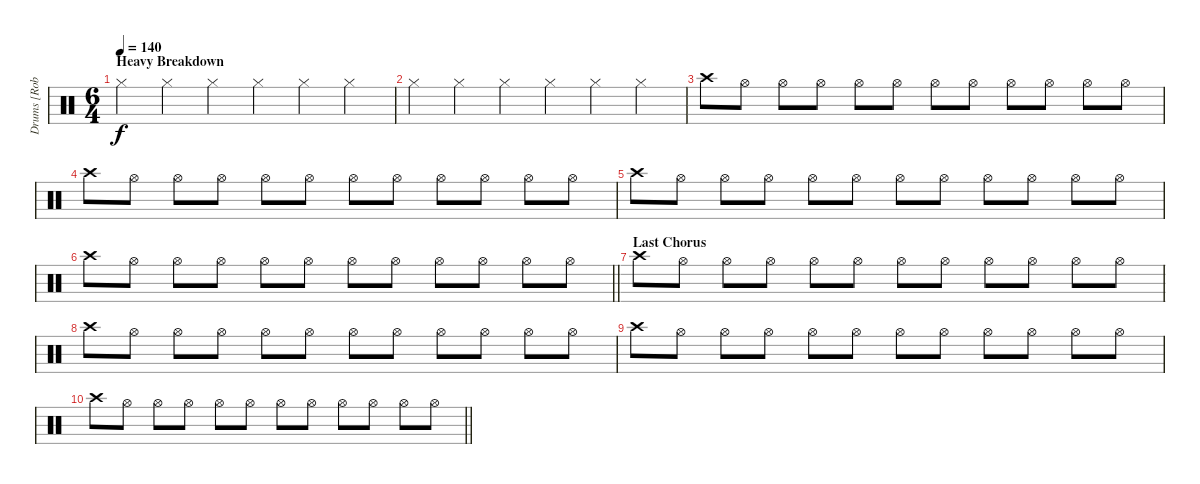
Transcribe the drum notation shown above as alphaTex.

\track ("Drums [Rob Bourdon]" "Drums [Rob") {instrument percussion}
\staff {score}
\articulation defaults
\ts (6 4)
\section ("" "Heavy Breakdown")
\tempo 140
\clef neutral
\ks c "Hi-Hat (closed)".4{dy f} "Hi-Hat (closed)".4 "Hi-Hat (closed)".4 "Hi-Hat (closed)".4 "Hi-Hat (closed)".4 "Hi-Hat (closed)".4
|
"Hi-Hat (closed)".4 "Hi-Hat (closed)".4 "Hi-Hat (closed)".4 "Hi-Hat (closed)".4 "Hi-Hat (closed)".4 "Hi-Hat (closed)".4 |
"Crash high (hit)".8 "Hi-Hat (open)".8 "Hi-Hat (open)".8 "Hi-Hat (open)".8 "Hi-Hat (open)".8 "Hi-Hat (open)".8 "Hi-Hat (open)".8 "Hi-Hat (open)".8 "Hi-Hat (open)".8 "Hi-Hat (open)".8 "Hi-Hat (open)".8 "Hi-Hat (open)".8 |
"Crash high (hit)".8 "Hi-Hat (open)".8 "Hi-Hat (open)".8 "Hi-Hat (open)".8 "Hi-Hat (open)".8 "Hi-Hat (open)".8 "Hi-Hat (open)".8 "Hi-Hat (open)".8 "Hi-Hat (open)".8 "Hi-Hat (open)".8 "Hi-Hat (open)".8 "Hi-Hat (open)".8 |
"Crash high (hit)".8 "Hi-Hat (open)".8 "Hi-Hat (open)".8 "Hi-Hat (open)".8 "Hi-Hat (open)".8 "Hi-Hat (open)".8 "Hi-Hat (open)".8 "Hi-Hat (open)".8 "Hi-Hat (open)".8 "Hi-Hat (open)".8 "Hi-Hat (open)".8 "Hi-Hat (open)".8 |
\barLineRight lightlight "Crash high (hit)".8 "Hi-Hat (open)".8 "Hi-Hat (open)".8 "Hi-Hat (open)".8 "Hi-Hat (open)".8 "Hi-Hat (open)".8 "Hi-Hat (open)".8 "Hi-Hat (open)".8 "Hi-Hat (open)".8 "Hi-Hat (open)".8 "Hi-Hat (open)".8 "Hi-Hat (open)".8
|
\section ("" "Last Chorus")
"Crash high (hit)".8 "Hi-Hat (open)".8 "Hi-Hat (open)".8 "Hi-Hat (open)".8 "Hi-Hat (open)".8 "Hi-Hat (open)".8 "Hi-Hat (open)".8 "Hi-Hat (open)".8 "Hi-Hat (open)".8 "Hi-Hat (open)".8 "Hi-Hat (open)".8 "Hi-Hat (open)".8 |
"Crash high (hit)".8 "Hi-Hat (open)".8 "Hi-Hat (open)".8 "Hi-Hat (open)".8 "Hi-Hat (open)".8 "Hi-Hat (open)".8 "Hi-Hat (open)".8 "Hi-Hat (open)".8 "Hi-Hat (open)".8 "Hi-Hat (open)".8 "Hi-Hat (open)".8 "Hi-Hat (open)".8 |
"Crash high (hit)".8 "Hi-Hat (open)".8 "Hi-Hat (open)".8 "Hi-Hat (open)".8 "Hi-Hat (open)".8 "Hi-Hat (open)".8 "Hi-Hat (open)".8 "Hi-Hat (open)".8 "Hi-Hat (open)".8 "Hi-Hat (open)".8 "Hi-Hat (open)".8 "Hi-Hat (open)".8 |
\barLineRight lightlight "Crash high (hit)".8 "Hi-Hat (open)".8 "Hi-Hat (open)".8 "Hi-Hat (open)".8 "Hi-Hat (open)".8 "Hi-Hat (open)".8 "Hi-Hat (open)".8 "Hi-Hat (open)".8 "Hi-Hat (open)".8 "Hi-Hat (open)".8 "Hi-Hat (open)".8 "Hi-Hat (open)".8
